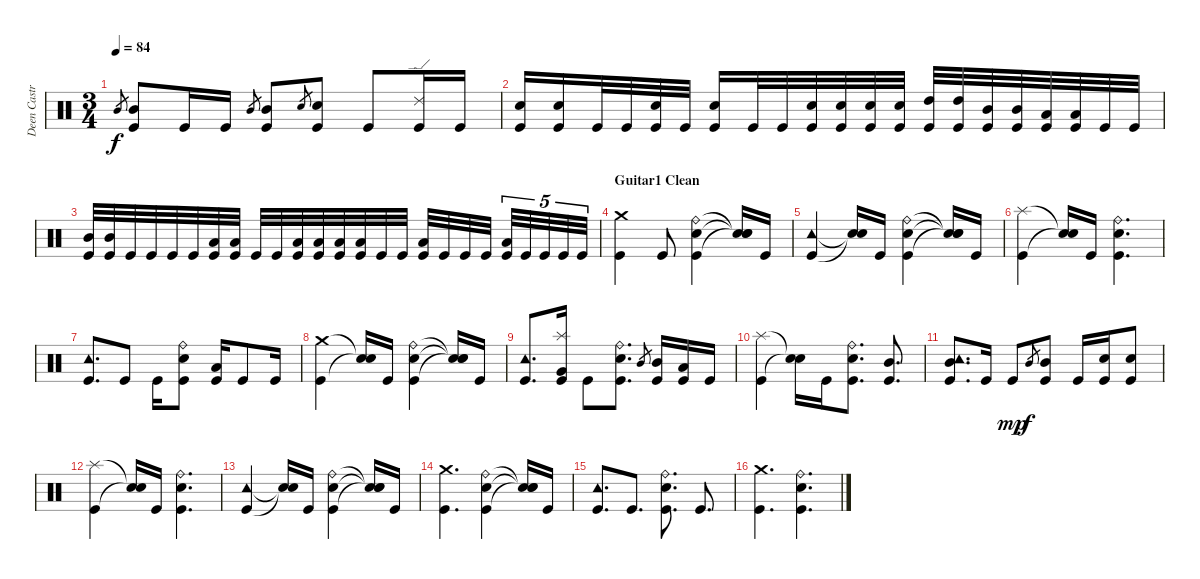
\track ("Deen Castronovo" "Deen Castr") {instrument percussion}
\staff {score}
\articulation defaults
\ts (3 4)
\tempo 84
\clef neutral
\ks c "Mid Tom (hit)".8{gr dy f}
("Mid Tom (hit)" "Kick (hit)").8 "Kick (hit)".16 "Kick (hit)".16 "Mid Tom (hit)".8{gr} ("Mid Tom (hit)" "Kick (hit)").8 "Snare (hit) 2".8{gr} ("Snare (hit) 2" "Kick (hit)").8 "Kick (hit)".8 ("Ride (edge) 2" "Kick (hit)").16 "Kick (hit)".16 |
("Snare (hit) 2" "Kick (hit)").16 ("Snare (hit) 2" "Kick (hit)").16 "Kick (hit)".32 "Kick (hit)".32 ("Snare (hit) 2" "Kick (hit)").32 "Kick (hit)".32 ("Snare (hit) 2" "Kick (hit)").16 "Kick (hit)".32 "Kick (hit)".32 ("Snare (hit) 2" "Kick (hit)").32 ("Snare (hit) 2" "Kick (hit)").32 ("Snare (hit) 2" "Kick (hit)").32 ("Snare (hit) 2" "Kick (hit)").32 ("High Tom (hit)" "Kick (hit)").32 ("High Tom (hit)" "Kick (hit)").32 ("Mid Tom (hit)" "Kick (hit)").32 ("Mid Tom (hit)" "Kick (hit)").32 ("Low Tom (hit)" "Kick (hit)").32 ("Low Tom (hit)" "Kick (hit)").32 "Kick (hit)".32 "Kick (hit)".32 |
("Mid Tom (hit)" "Kick (hit)").32 ("Mid Tom (hit)" "Kick (hit)").32 "Kick (hit)".32 "Kick (hit)".32 "Kick (hit)".32 "Kick (hit)".32 ("Low Tom (hit)" "Kick (hit)").32 ("Low Tom (hit)" "Kick (hit)").32 "Kick (hit)".32 "Kick (hit)".32 ("Low Tom (hit)" "Kick (hit)").32 ("Low Tom (hit)" "Kick (hit)").32 ("Low Tom (hit)" "Kick (hit)").32 ("Low Tom (hit)" "Kick (hit)").32 "Kick (hit)".32 "Kick (hit)".32 ("Low Tom (hit)" "Kick (hit)").32 "Kick (hit)".32 "Kick (hit)".32 "Kick (hit)".32 ("Low Tom (hit)" "Kick (hit)").32{tu (5 4)} "Kick (hit)".32{tu (5 4)} "Kick (hit)".32{tu (5 4)} "Kick (hit)".32{tu (5 4)} "Kick (hit)".32{tu (5 4)} |
\section ("" "Guitar1 Clean")
("Crash medium (hit)" "Kick (hit)").4 "Kick (hit)".8 ("Ride (bell)" "Snare (hit) 2" "Kick (hit)").4 ("Snare (hit)"{t} "Snare (hit)"{t} "Snare (hit)"{t}).16 "Kick (hit)".16 |
("Tambourine (hit)" "Kick (hit)").4 ("Snare (hit)"{t} "Snare (hit)"{t}).16 "Kick (hit)".16 ("Ride (bell)" "Snare (hit) 2" "Kick (hit)").4 ("Snare (hit)"{t} "Snare (hit)"{t} "Snare (hit)"{t}).16 "Kick (hit)".16 |
("Splash (hit)" "Kick (hit)").4 ("Snare (hit)"{t} "Snare (hit)"{t}).16 "Kick (hit)".16 ("Ride (bell)" "Snare (hit) 2" "Kick (hit)").4{d} |
("Tambourine (hit)" "Kick (hit)").8{d} "Kick (hit)".8 "Kick (hit)".16 ("Ride (bell)" "Snare (hit) 2" "Kick (hit)").8 ("Low Tom (hit)" "Kick (hit)").16 "Kick (hit)".8 "Kick (hit)".16 |
("Crash medium (hit)" "Kick (hit)").4 ("Snare (hit)"{t} "Snare (hit)"{t}).16 "Kick (hit)".16 ("Ride (bell)" "Snare (hit) 2" "Kick (hit)").4 ("Snare (hit)"{t} "Snare (hit)"{t} "Snare (hit)"{t}).16 "Kick (hit)".16 |
("Tambourine (hit)" "Kick (hit)").8{d} ("Splash (hit)" "Very Low Tom (hit)" "Kick (hit)").16 "Kick (hit)".8 ("Ride (bell)" "Snare (hit) 2" "Kick (hit)").8{d} "Mid Tom (hit)".8{gr} ("Mid Tom (hit)" "Kick (hit)").16 ("Low Tom (hit)" "Kick (hit)").16 "Kick (hit)".16 |
("Splash (hit)" "Kick (hit)").4 ("Snare (hit)"{t} "Snare (hit)"{t}).16 "Kick (hit)".16 ("Ride (bell)" "Snare (hit) 2" "Kick (hit)").8{d} ("Mid Tom (hit)" "Kick (hit)").8{d} |
("Tambourine (hit)" "Mid Tom (hit)" "Kick (hit)").8{d} "Kick (hit)".16 "Kick (hit)".8{dy mp} "Mid Tom (hit)".8{gr dy f} ("Mid Tom (hit)" "Kick (hit)").8 "Kick (hit)".16 ("Snare (hit) 2" "Kick (hit)").16 ("Snare (hit) 2" "Kick (hit)").8 |
("Splash (hit)" "Kick (hit)").4 ("Snare (hit)"{t} "Snare (hit)"{t}).16 "Kick (hit)".16 ("Ride (bell)" "Snare (hit) 2" "Kick (hit)").4{d} |
("Tambourine (hit)" "Kick (hit)").4 ("Snare (hit)"{t} "Snare (hit)"{t}).16 "Kick (hit)".16 ("Ride (bell)" "Snare (hit) 2" "Kick (hit)").4 ("Snare (hit)"{t} "Snare (hit)"{t} "Snare (hit)"{t}).16 "Kick (hit)".16 |
("Crash medium (hit)" "Kick (hit)").4{d} ("Ride (bell)" "Snare (hit) 2" "Kick (hit)").4 ("Snare (hit)"{t} "Snare (hit)"{t} "Snare (hit)"{t}).16 "Kick (hit)".16 |
("Tambourine (hit)" "Kick (hit)").8{d} "Kick (hit)".8{d} ("Ride (bell)" "Snare (hit) 2" "Kick (hit)").8{d} "Kick (hit)".8{d} |
("Crash medium (hit)" "Kick (hit)").4{d} ("Ride (bell)" "Snare (hit) 2" "Kick (hit)").4{d}
